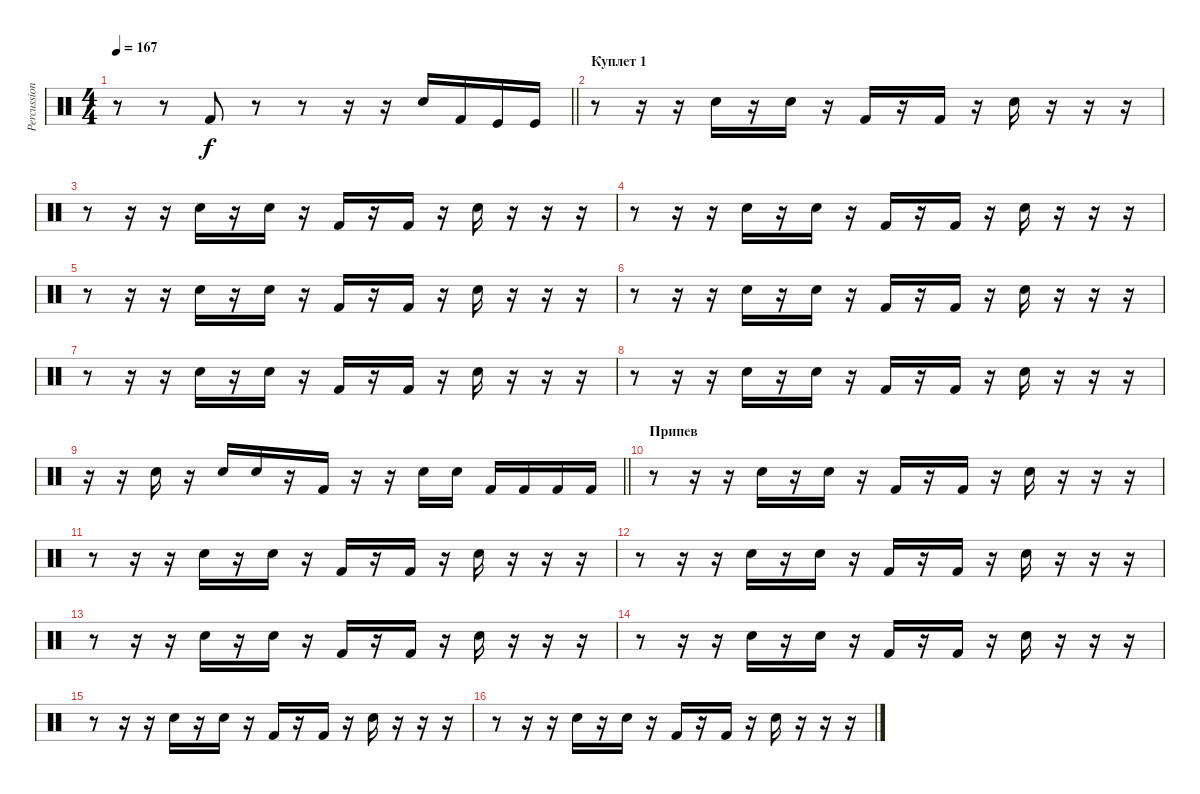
\track ("Percussion 1" "Percussion") {instrument percussion}
\staff {score}
\articulation defaults
\ts (4 4)
\tempo 167
\clef neutral
\barLineRight lightlight
\ks c
r.8{dy f} r.8 "Kick (hit) 2".8 r.8 r.8 r.16 r.16 "Electric Snare (hit)".16 "Kick (hit) 2".16 "Kick (hit)".16 "Kick (hit)".16 |
\section ("" "Куплет 1")
r.8 r.16 r.16 "Electric Snare (hit)".16 r.16 "Electric Snare (hit)".16 r.16 "Kick (hit) 2".16 r.16 "Kick (hit) 2".16 r.16 "Snare (hit) 2".16 r.16 r.16 r.16 |
r.8 r.16 r.16 "Electric Snare (hit)".16 r.16 "Electric Snare (hit)".16 r.16 "Kick (hit) 2".16 r.16 "Kick (hit) 2".16 r.16 "Snare (hit) 2".16 r.16 r.16 r.16 |
r.8 r.16 r.16 "Electric Snare (hit)".16 r.16 "Electric Snare (hit)".16 r.16 "Kick (hit) 2".16 r.16 "Kick (hit) 2".16 r.16 "Snare (hit) 2".16 r.16 r.16 r.16 |
r.8 r.16 r.16 "Electric Snare (hit)".16 r.16 "Electric Snare (hit)".16 r.16 "Kick (hit) 2".16 r.16 "Kick (hit) 2".16 r.16 "Snare (hit) 2".16 r.16 r.16 r.16 |
r.8 r.16 r.16 "Electric Snare (hit)".16 r.16 "Electric Snare (hit)".16 r.16 "Kick (hit) 2".16 r.16 "Kick (hit) 2".16 r.16 "Snare (hit) 2".16 r.16 r.16 r.16 |
r.8 r.16 r.16 "Electric Snare (hit)".16 r.16 "Electric Snare (hit)".16 r.16 "Kick (hit) 2".16 r.16 "Kick (hit) 2".16 r.16 "Snare (hit) 2".16 r.16 r.16 r.16 |
r.8 r.16 r.16 "Electric Snare (hit)".16 r.16 "Electric Snare (hit)".16 r.16 "Kick (hit) 2".16 r.16 "Kick (hit) 2".16 r.16 "Snare (hit) 2".16 r.16 r.16 r.16 |
\barLineRight lightlight
r.16 r.16 "Snare (hit) 2".16 r.16 "Electric Snare (hit)".16 "Electric Snare (hit)".16 r.16 "Kick (hit) 2".16 r.16 r.16 "Snare (hit) 2".16 "Snare (hit) 2".16 "Kick (hit) 2".16 "Kick (hit) 2".16 "Kick (hit) 2".16 "Kick (hit) 2".16 |
\section ("" "Припев")
r.8 r.16 r.16 "Electric Snare (hit)".16 r.16 "Electric Snare (hit)".16 r.16 "Kick (hit) 2".16 r.16 "Kick (hit) 2".16 r.16 "Snare (hit) 2".16 r.16 r.16 r.16 |
r.8 r.16 r.16 "Electric Snare (hit)".16 r.16 "Electric Snare (hit)".16 r.16 "Kick (hit) 2".16 r.16 "Kick (hit) 2".16 r.16 "Snare (hit) 2".16 r.16 r.16 r.16 |
r.8 r.16 r.16 "Electric Snare (hit)".16 r.16 "Electric Snare (hit)".16 r.16 "Kick (hit) 2".16 r.16 "Kick (hit) 2".16 r.16 "Snare (hit) 2".16 r.16 r.16 r.16 |
r.8 r.16 r.16 "Electric Snare (hit)".16 r.16 "Electric Snare (hit)".16 r.16 "Kick (hit) 2".16 r.16 "Kick (hit) 2".16 r.16 "Snare (hit) 2".16 r.16 r.16 r.16 |
r.8 r.16 r.16 "Electric Snare (hit)".16 r.16 "Electric Snare (hit)".16 r.16 "Kick (hit) 2".16 r.16 "Kick (hit) 2".16 r.16 "Snare (hit) 2".16 r.16 r.16 r.16 |
r.8 r.16 r.16 "Electric Snare (hit)".16 r.16 "Electric Snare (hit)".16 r.16 "Kick (hit) 2".16 r.16 "Kick (hit) 2".16 r.16 "Snare (hit) 2".16 r.16 r.16 r.16 |
r.8 r.16 r.16 "Electric Snare (hit)".16 r.16 "Electric Snare (hit)".16 r.16 "Kick (hit) 2".16 r.16 "Kick (hit) 2".16 r.16 "Snare (hit) 2".16 r.16 r.16 r.16
